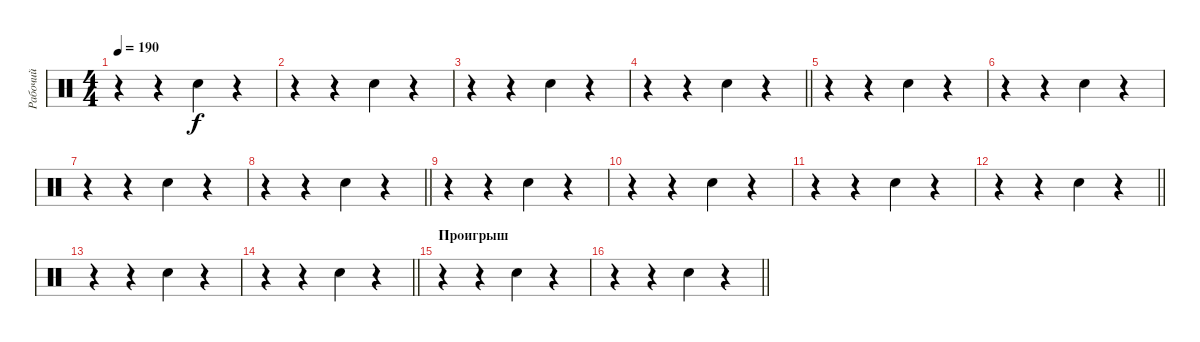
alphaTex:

\track ("Рабочий" "Рабочий") {instrument percussion}
\staff {score}
\articulation defaults
\ts (4 4)
\tempo 190
\clef neutral
\ks c
r.4{dy f} r.4 "Snare (hit) 2".4 r.4 |
r.4 r.4 "Snare (hit) 2".4 r.4 |
r.4 r.4 "Snare (hit) 2".4 r.4 |
\barLineRight lightlight
r.4 r.4 "Snare (hit) 2".4 r.4 |
r.4 r.4 "Snare (hit) 2".4 r.4 |
r.4 r.4 "Snare (hit) 2".4 r.4 |
r.4 r.4 "Snare (hit) 2".4 r.4 |
\barLineRight lightlight
r.4 r.4 "Snare (hit) 2".4 r.4 |
r.4 r.4 "Snare (hit) 2".4 r.4 |
r.4 r.4 "Snare (hit) 2".4 r.4 |
r.4 r.4 "Snare (hit) 2".4 r.4 |
\barLineRight lightlight
r.4 r.4 "Snare (hit) 2".4 r.4 |
r.4 r.4 "Snare (hit) 2".4 r.4 |
\barLineRight lightlight
r.4 r.4 "Snare (hit) 2".4 r.4 |
\section ("" "Проигрыш")
r.4 r.4 "Snare (hit) 2".4 r.4 |
\barLineRight lightlight
r.4 r.4 "Snare (hit) 2".4 r.4
